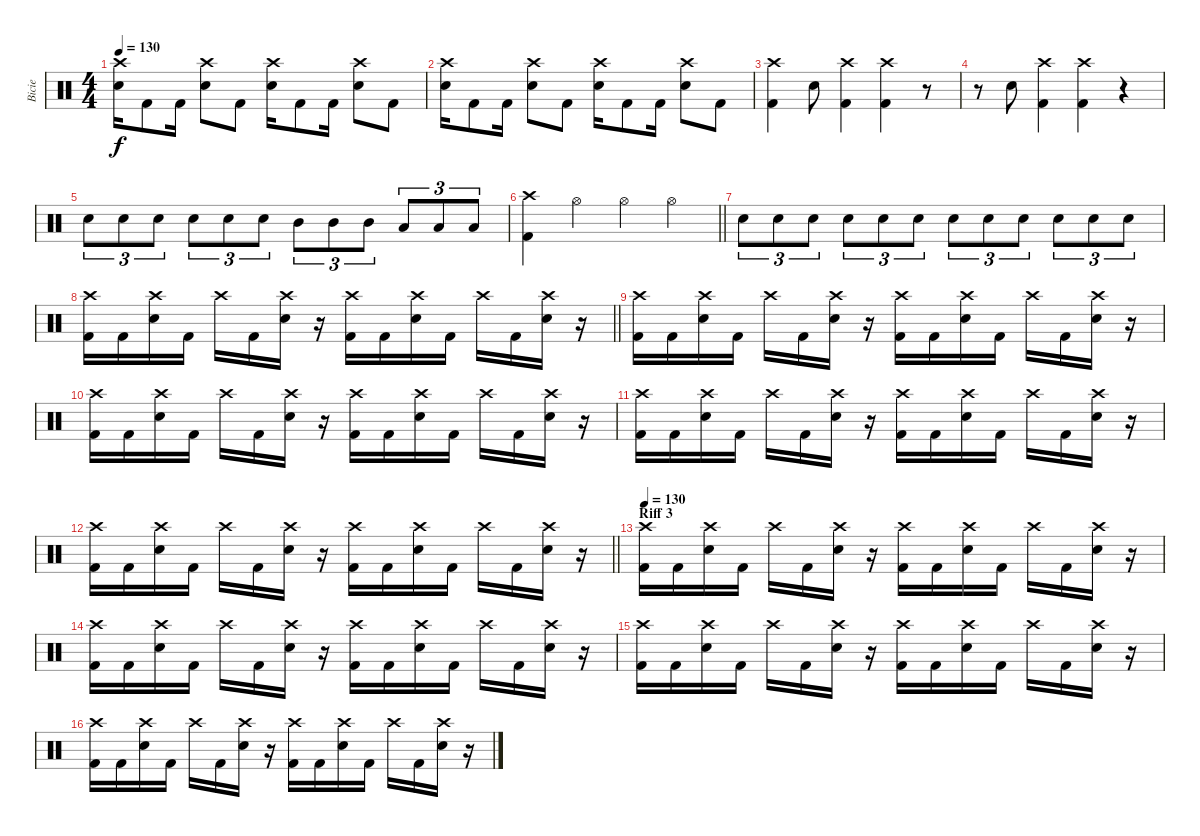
\track ("Bicie" "Bicie") {instrument percussion}
\staff {score}
\articulation defaults
\ts (4 4)
\tempo 130
\clef neutral
\ks c
("Crash high (hit)" "Snare (hit) 2").16{dy f} "Kick (hit) 2".8 "Kick (hit) 2".16 ("Crash high (hit)" "Snare (hit) 2").8 "Kick (hit) 2".8 ("Crash high (hit)" "Snare (hit) 2").16 "Kick (hit) 2".8 "Kick (hit) 2".16 ("Crash high (hit)" "Snare (hit) 2").8 "Kick (hit) 2".8 |
("Crash high (hit)" "Snare (hit) 2").16 "Kick (hit) 2".8 "Kick (hit) 2".16 ("Crash high (hit)" "Snare (hit) 2").8 "Kick (hit) 2".8 ("Crash high (hit)" "Snare (hit) 2").16 "Kick (hit) 2".8 "Kick (hit) 2".16 ("Crash high (hit)" "Snare (hit) 2").8 "Kick (hit) 2".8 |
("Crash high (hit)" "Kick (hit) 2").4 "Snare (hit) 2".8 ("Crash high (hit)" "Kick (hit) 2").4 ("Crash high (hit)" "Kick (hit) 2").4 r.8 |
r.8 "Snare (hit) 2".8 ("Crash high (hit)" "Kick (hit) 2").4 ("Crash high (hit)" "Kick (hit) 2").4 r.4 |
"Snare (hit) 2".8{tu (3 2)} "Snare (hit) 2".8{tu (3 2)} "Snare (hit) 2".8{tu (3 2)} "Snare (hit) 2".8{tu (3 2)} "Snare (hit) 2".8{tu (3 2)} "Snare (hit) 2".8{tu (3 2)} "Mid Tom (hit)".8{tu (3 2)} "Mid Tom (hit)".8{tu (3 2)} "Mid Tom (hit)".8{tu (3 2)} "Low Tom (hit)".8{tu (3 2)} "Low Tom (hit)".8{tu (3 2)} "Low Tom (hit)".8{tu (3 2)} |
\barLineRight lightlight
("Crash high (hit)" "Kick (hit) 2").4 "Hi-Hat (open)".4 "Hi-Hat (open)".4 "Hi-Hat (open)".4 |
"Snare (hit) 2".8{tu (3 2)} "Snare (hit) 2".8{tu (3 2)} "Snare (hit) 2".8{tu (3 2)} "Snare (hit) 2".8{tu (3 2)} "Snare (hit) 2".8{tu (3 2)} "Snare (hit) 2".8{tu (3 2)} "Snare (hit) 2".8{tu (3 2)} "Snare (hit) 2".8{tu (3 2)} "Snare (hit) 2".8{tu (3 2)} "Snare (hit) 2".8{tu (3 2)} "Snare (hit) 2".8{tu (3 2)} "Snare (hit) 2".8{tu (3 2)} |
\barLineRight lightlight
("Crash high (hit)" "Kick (hit) 2").16 "Kick (hit) 2".16 ("Crash high (hit)" "Snare (hit) 2").16 "Kick (hit) 2".16 "Crash high (hit)".16 "Kick (hit) 2".16 ("Crash high (hit)" "Snare (hit) 2").16 r.16 ("Crash high (hit)" "Kick (hit) 2").16 "Kick (hit) 2".16 ("Crash high (hit)" "Snare (hit) 2").16 "Kick (hit) 2".16 "Crash high (hit)".16 "Kick (hit) 2".16 ("Crash high (hit)" "Snare (hit) 2").16 r.16 |
("Crash high (hit)" "Kick (hit) 2").16 "Kick (hit) 2".16 ("Crash high (hit)" "Snare (hit) 2").16 "Kick (hit) 2".16 "Crash high (hit)".16 "Kick (hit) 2".16 ("Crash high (hit)" "Snare (hit) 2").16 r.16 ("Crash high (hit)" "Kick (hit) 2").16 "Kick (hit) 2".16 ("Crash high (hit)" "Snare (hit) 2").16 "Kick (hit) 2".16 "Crash high (hit)".16 "Kick (hit) 2".16 ("Crash high (hit)" "Snare (hit) 2").16 r.16 |
("Crash high (hit)" "Kick (hit) 2").16 "Kick (hit) 2".16 ("Crash high (hit)" "Snare (hit) 2").16 "Kick (hit) 2".16 "Crash high (hit)".16 "Kick (hit) 2".16 ("Crash high (hit)" "Snare (hit) 2").16 r.16 ("Crash high (hit)" "Kick (hit) 2").16 "Kick (hit) 2".16 ("Crash high (hit)" "Snare (hit) 2").16 "Kick (hit) 2".16 "Crash high (hit)".16 "Kick (hit) 2".16 ("Crash high (hit)" "Snare (hit) 2").16 r.16 |
("Crash high (hit)" "Kick (hit) 2").16 "Kick (hit) 2".16 ("Crash high (hit)" "Snare (hit) 2").16 "Kick (hit) 2".16 "Crash high (hit)".16 "Kick (hit) 2".16 ("Crash high (hit)" "Snare (hit) 2").16 r.16 ("Crash high (hit)" "Kick (hit) 2").16 "Kick (hit) 2".16 ("Crash high (hit)" "Snare (hit) 2").16 "Kick (hit) 2".16 "Crash high (hit)".16 "Kick (hit) 2".16 ("Crash high (hit)" "Snare (hit) 2").16 r.16 |
\barLineRight lightlight
("Crash high (hit)" "Kick (hit) 2").16 "Kick (hit) 2".16 ("Crash high (hit)" "Snare (hit) 2").16 "Kick (hit) 2".16 "Crash high (hit)".16 "Kick (hit) 2".16 ("Crash high (hit)" "Snare (hit) 2").16 r.16 ("Crash high (hit)" "Kick (hit) 2").16 "Kick (hit) 2".16 ("Crash high (hit)" "Snare (hit) 2").16 "Kick (hit) 2".16 "Crash high (hit)".16 "Kick (hit) 2".16 ("Crash high (hit)" "Snare (hit) 2").16 r.16 |
\section ("" "Riff 3")
\tempo 130
("Crash high (hit)" "Kick (hit) 2").16 "Kick (hit) 2".16 ("Crash high (hit)" "Snare (hit) 2").16 "Kick (hit) 2".16 "Crash high (hit)".16 "Kick (hit) 2".16 ("Crash high (hit)" "Snare (hit) 2").16 r.16 ("Crash high (hit)" "Kick (hit) 2").16 "Kick (hit) 2".16 ("Crash high (hit)" "Snare (hit) 2").16 "Kick (hit) 2".16 "Crash high (hit)".16 "Kick (hit) 2".16 ("Crash high (hit)" "Snare (hit) 2").16 r.16 |
("Crash high (hit)" "Kick (hit) 2").16 "Kick (hit) 2".16 ("Crash high (hit)" "Snare (hit) 2").16 "Kick (hit) 2".16 "Crash high (hit)".16 "Kick (hit) 2".16 ("Crash high (hit)" "Snare (hit) 2").16 r.16 ("Crash high (hit)" "Kick (hit) 2").16 "Kick (hit) 2".16 ("Crash high (hit)" "Snare (hit) 2").16 "Kick (hit) 2".16 "Crash high (hit)".16 "Kick (hit) 2".16 ("Crash high (hit)" "Snare (hit) 2").16 r.16 |
("Crash high (hit)" "Kick (hit) 2").16 "Kick (hit) 2".16 ("Crash high (hit)" "Snare (hit) 2").16 "Kick (hit) 2".16 "Crash high (hit)".16 "Kick (hit) 2".16 ("Crash high (hit)" "Snare (hit) 2").16 r.16 ("Crash high (hit)" "Kick (hit) 2").16 "Kick (hit) 2".16 ("Crash high (hit)" "Snare (hit) 2").16 "Kick (hit) 2".16 "Crash high (hit)".16 "Kick (hit) 2".16 ("Crash high (hit)" "Snare (hit) 2").16 r.16 |
("Crash high (hit)" "Kick (hit) 2").16 "Kick (hit) 2".16 ("Crash high (hit)" "Snare (hit) 2").16 "Kick (hit) 2".16 "Crash high (hit)".16 "Kick (hit) 2".16 ("Crash high (hit)" "Snare (hit) 2").16 r.16 ("Crash high (hit)" "Kick (hit) 2").16 "Kick (hit) 2".16 ("Crash high (hit)" "Snare (hit) 2").16 "Kick (hit) 2".16 "Crash high (hit)".16 "Kick (hit) 2".16 ("Crash high (hit)" "Snare (hit) 2").16 r.16
